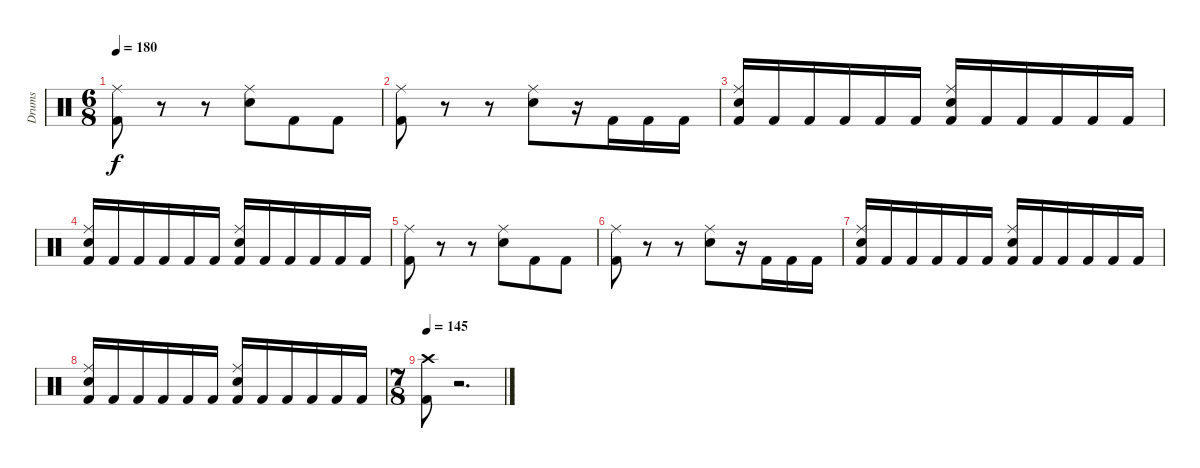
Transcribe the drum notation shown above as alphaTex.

\track ("Drums" "Drums") {instrument percussion}
\staff {score}
\articulation defaults
\ts (6 8)
\tempo 180
\clef neutral
\ks c
("Kick (hit) 2" "Ride (middle)").8{dy f} r.8 r.8 ("Electric Snare (hit)" "Ride (middle)").8 "Kick (hit) 2".8 "Kick (hit) 2".8 |
("Kick (hit) 2" "Ride (middle)").8 r.8 r.8 ("Electric Snare (hit)" "Ride (middle)").8 r.16 "Kick (hit) 2".16 "Kick (hit) 2".16 "Kick (hit) 2".16 |
("Kick (hit) 2" "Electric Snare (hit)" "Ride (middle)").16 "Kick (hit) 2".16 "Kick (hit) 2".16 "Kick (hit) 2".16 "Kick (hit) 2".16 "Kick (hit) 2".16 ("Kick (hit) 2" "Electric Snare (hit)" "Ride (middle)").16 "Kick (hit) 2".16 "Kick (hit) 2".16 "Kick (hit) 2".16 "Kick (hit) 2".16 "Kick (hit) 2".16 |
("Kick (hit) 2" "Electric Snare (hit)" "Ride (middle)").16 "Kick (hit) 2".16 "Kick (hit) 2".16 "Kick (hit) 2".16 "Kick (hit) 2".16 "Kick (hit) 2".16 ("Kick (hit) 2" "Electric Snare (hit)" "Ride (middle)").16 "Kick (hit) 2".16 "Kick (hit) 2".16 "Kick (hit) 2".16 "Kick (hit) 2".16 "Kick (hit) 2".16 |
("Kick (hit) 2" "Ride (middle)").8 r.8 r.8 ("Electric Snare (hit)" "Ride (middle)").8 "Kick (hit) 2".8 "Kick (hit) 2".8 |
("Kick (hit) 2" "Ride (middle)").8 r.8 r.8 ("Electric Snare (hit)" "Ride (middle)").8 r.16 "Kick (hit) 2".16 "Kick (hit) 2".16 "Kick (hit) 2".16 |
("Kick (hit) 2" "Electric Snare (hit)" "Ride (middle)").16 "Kick (hit) 2".16 "Kick (hit) 2".16 "Kick (hit) 2".16 "Kick (hit) 2".16 "Kick (hit) 2".16 ("Kick (hit) 2" "Electric Snare (hit)" "Ride (middle)").16 "Kick (hit) 2".16 "Kick (hit) 2".16 "Kick (hit) 2".16 "Kick (hit) 2".16 "Kick (hit) 2".16 |
("Kick (hit) 2" "Electric Snare (hit)" "Ride (middle)").16 "Kick (hit) 2".16 "Kick (hit) 2".16 "Kick (hit) 2".16 "Kick (hit) 2".16 "Kick (hit) 2".16 ("Kick (hit) 2" "Electric Snare (hit)" "Ride (middle)").16 "Kick (hit) 2".16 "Kick (hit) 2".16 "Kick (hit) 2".16 "Kick (hit) 2".16 "Kick (hit) 2".16 |
\ts (7 8)
\tempo 145
("Kick (hit) 2" "Crash high (hit)").8 r.2{d}
